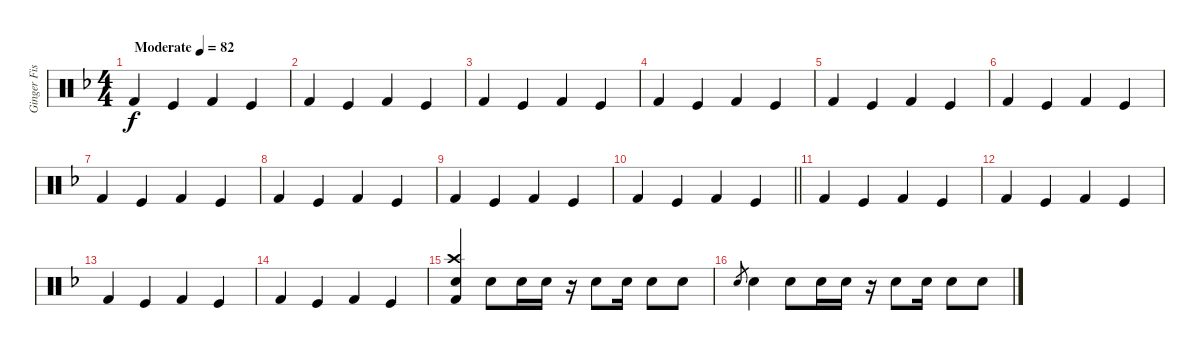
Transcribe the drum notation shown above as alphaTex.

\track ("Ginger Fish" "Ginger Fis") {instrument percussion}
\staff {score}
\articulation defaults
\ts (4 4)
\tempo (82 "Moderate")
\clef neutral
\ks f "Kick (hit) 2".4{dy f} "Kick (hit)".4 "Kick (hit) 2".4 "Kick (hit)".4
|
"Kick (hit) 2".4 "Kick (hit)".4 "Kick (hit) 2".4 "Kick (hit)".4 |
"Kick (hit) 2".4 "Kick (hit)".4 "Kick (hit) 2".4 "Kick (hit)".4 |
"Kick (hit) 2".4 "Kick (hit)".4 "Kick (hit) 2".4 "Kick (hit)".4 |
"Kick (hit) 2".4 "Kick (hit)".4 "Kick (hit) 2".4 "Kick (hit)".4 |
"Kick (hit) 2".4 "Kick (hit)".4 "Kick (hit) 2".4 "Kick (hit)".4 |
"Kick (hit) 2".4 "Kick (hit)".4 "Kick (hit) 2".4 "Kick (hit)".4 |
"Kick (hit) 2".4 "Kick (hit)".4 "Kick (hit) 2".4 "Kick (hit)".4 |
"Kick (hit) 2".4 "Kick (hit)".4 "Kick (hit) 2".4 "Kick (hit)".4 |
\barLineRight lightlight "Kick (hit) 2".4 "Kick (hit)".4 "Kick (hit) 2".4 "Kick (hit)".4
|
"Kick (hit) 2".4 "Kick (hit)".4 "Kick (hit) 2".4 "Kick (hit)".4 |
"Kick (hit) 2".4 "Kick (hit)".4 "Kick (hit) 2".4 "Kick (hit)".4 |
"Kick (hit) 2".4 "Kick (hit)".4 "Kick (hit) 2".4 "Kick (hit)".4 |
"Kick (hit) 2".4 "Kick (hit)".4 "Kick (hit) 2".4 "Kick (hit)".4 |
("Kick (hit) 2" "Crash high (hit)" "Electric Snare (hit)").4{volume 13} "Electric Snare (hit)".8 "Snare (hit) 2".16 "Electric Snare (hit)".16 r.16 "Electric Snare (hit)".8 "Snare (hit) 2".16 "Snare (hit) 2".8 "Electric Snare (hit)".8 |
"Electric Snare (hit)".8{gr} "Electric Snare (hit)".4 "Electric Snare (hit)".8 "Snare (hit) 2".16 "Electric Snare (hit)".16 r.16 "Electric Snare (hit)".8 "Snare (hit) 2".16 "Snare (hit) 2".8 "Electric Snare (hit)".8
